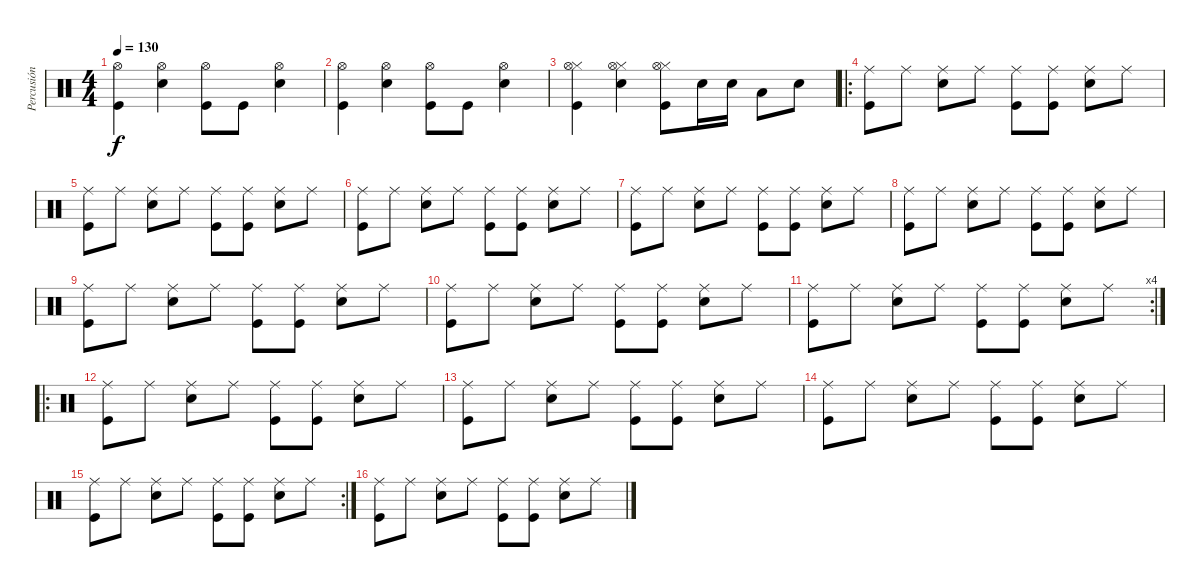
\track ("Percusión" "Percusión") {instrument percussion}
\staff {score}
\articulation defaults
\ts (4 4)
\tempo 130
\clef neutral
\ks c
("Kick (hit)" "Hi-Hat (open)").4{dy f} ("Hi-Hat (open)" "Snare (hit) 2").4 ("Hi-Hat (open)" "Kick (hit)").8 "Kick (hit)".8 ("Hi-Hat (open)" "Snare (hit) 2").4 |
("Kick (hit)" "Hi-Hat (open)").4 ("Hi-Hat (open)" "Snare (hit) 2").4 ("Hi-Hat (open)" "Kick (hit)").8 "Kick (hit)".8 ("Hi-Hat (open)" "Snare (hit) 2").4 |
("Kick (hit)" "Hi-Hat (closed)" "Hi-Hat (open)").4 ("Snare (hit) 2" "Hi-Hat (closed)" "Hi-Hat (open)").4 ("Kick (hit)" "Hi-Hat (closed)" "Hi-Hat (open)").8 "Snare (hit) 2".16 "Snare (hit) 2".16 "Low Tom (hit)".8 "Snare (hit) 2".8 |
\ro
("Kick (hit)" "Ride (middle)").8 "Ride (middle)".8 ("Ride (middle)" "Snare (hit) 2").8 "Ride (middle)".8 ("Ride (middle)" "Kick (hit)").8 ("Ride (middle)" "Kick (hit)").8 ("Ride (middle)" "Snare (hit) 2").8 "Ride (middle)".8 |
("Kick (hit)" "Ride (middle)").8 "Ride (middle)".8 ("Ride (middle)" "Snare (hit) 2").8 "Ride (middle)".8 ("Ride (middle)" "Kick (hit)").8 ("Ride (middle)" "Kick (hit)").8 ("Ride (middle)" "Snare (hit) 2").8 "Ride (middle)".8 |
("Kick (hit)" "Ride (middle)").8 "Ride (middle)".8 ("Ride (middle)" "Snare (hit) 2").8 "Ride (middle)".8 ("Ride (middle)" "Kick (hit)").8 ("Ride (middle)" "Kick (hit)").8 ("Ride (middle)" "Snare (hit) 2").8 "Ride (middle)".8 |
("Kick (hit)" "Ride (middle)").8 "Ride (middle)".8 ("Ride (middle)" "Snare (hit) 2").8 "Ride (middle)".8 ("Ride (middle)" "Kick (hit)").8 ("Ride (middle)" "Kick (hit)").8 ("Ride (middle)" "Snare (hit) 2").8 "Ride (middle)".8 |
("Kick (hit)" "Ride (middle)").8 "Ride (middle)".8 ("Ride (middle)" "Snare (hit) 2").8 "Ride (middle)".8 ("Ride (middle)" "Kick (hit)").8 ("Ride (middle)" "Kick (hit)").8 ("Ride (middle)" "Snare (hit) 2").8 "Ride (middle)".8 |
("Kick (hit)" "Ride (middle)").8 "Ride (middle)".8 ("Ride (middle)" "Snare (hit) 2").8 "Ride (middle)".8 ("Ride (middle)" "Kick (hit)").8 ("Ride (middle)" "Kick (hit)").8 ("Ride (middle)" "Snare (hit) 2").8 "Ride (middle)".8 |
("Kick (hit)" "Ride (middle)").8 "Ride (middle)".8 ("Ride (middle)" "Snare (hit) 2").8 "Ride (middle)".8 ("Ride (middle)" "Kick (hit)").8 ("Ride (middle)" "Kick (hit)").8 ("Ride (middle)" "Snare (hit) 2").8 "Ride (middle)".8 |
\rc 4
("Kick (hit)" "Ride (middle)").8 "Ride (middle)".8 ("Ride (middle)" "Snare (hit) 2").8 "Ride (middle)".8 ("Ride (middle)" "Kick (hit)").8 ("Ride (middle)" "Kick (hit)").8 ("Ride (middle)" "Snare (hit) 2").8 "Ride (middle)".8 |
\ro
("Kick (hit)" "Ride (middle)").8 "Ride (middle)".8 ("Ride (middle)" "Snare (hit) 2").8 "Ride (middle)".8 ("Ride (middle)" "Kick (hit)").8 ("Ride (middle)" "Kick (hit)").8 ("Ride (middle)" "Snare (hit) 2").8 "Ride (middle)".8 |
("Kick (hit)" "Ride (middle)").8 "Ride (middle)".8 ("Ride (middle)" "Snare (hit) 2").8 "Ride (middle)".8 ("Ride (middle)" "Kick (hit)").8 ("Ride (middle)" "Kick (hit)").8 ("Ride (middle)" "Snare (hit) 2").8 "Ride (middle)".8 |
("Kick (hit)" "Ride (middle)").8 "Ride (middle)".8 ("Ride (middle)" "Snare (hit) 2").8 "Ride (middle)".8 ("Ride (middle)" "Kick (hit)").8 ("Ride (middle)" "Kick (hit)").8 ("Ride (middle)" "Snare (hit) 2").8 "Ride (middle)".8 |
\rc 2
("Kick (hit)" "Ride (middle)").8 "Ride (middle)".8 ("Ride (middle)" "Snare (hit) 2").8 "Ride (middle)".8 ("Ride (middle)" "Kick (hit)").8 ("Ride (middle)" "Kick (hit)").8 ("Ride (middle)" "Snare (hit) 2").8 "Ride (middle)".8 |
("Kick (hit)" "Ride (middle)").8 "Ride (middle)".8 ("Ride (middle)" "Snare (hit) 2").8 "Ride (middle)".8 ("Ride (middle)" "Kick (hit)").8 ("Ride (middle)" "Kick (hit)").8 ("Ride (middle)" "Snare (hit) 2").8 "Ride (middle)".8
